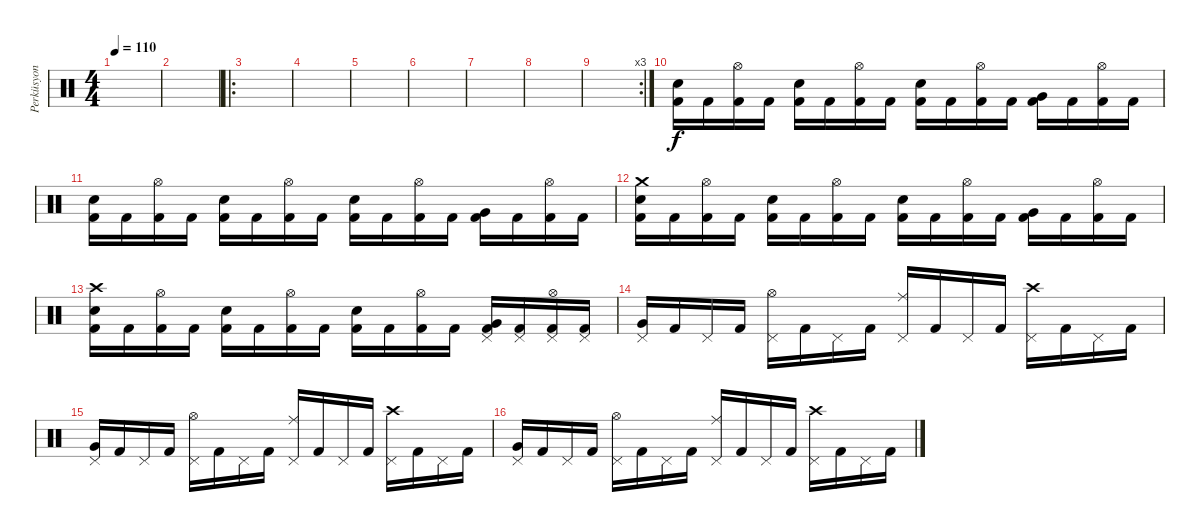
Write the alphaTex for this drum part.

\track ("Perküsyon" "Perküsyon") {instrument percussion}
\staff {score}
\articulation defaults
\ts (4 4)
\tempo 110
\clef neutral
\ks c
|
|
\ro
|
|
|
|
|
|
\rc 3
|
("Electric Snare (hit)" "Kick (hit) 2").16 "Kick (hit) 2".16 ("Hi-Hat (open)" "Kick (hit) 2").16 "Kick (hit) 2".16 ("Electric Snare (hit)" "Kick (hit) 2").16 "Kick (hit) 2".16 ("Hi-Hat (open)" "Kick (hit) 2").16 "Kick (hit) 2".16 ("Electric Snare (hit)" "Kick (hit) 2").16 "Kick (hit) 2".16 ("Hi-Hat (open)" "Kick (hit) 2").16 "Kick (hit) 2".16 ("Very Low Tom (hit)" "Kick (hit) 2").16 "Kick (hit) 2".16 ("Hi-Hat (open)" "Kick (hit) 2").16 "Kick (hit) 2".16 |
("Snare (hit) 2" "Kick (hit) 2").16 "Kick (hit) 2".16 ("Hi-Hat (open)" "Kick (hit) 2").16 "Kick (hit) 2".16 ("Snare (hit) 2" "Kick (hit) 2").16 "Kick (hit) 2".16 ("Hi-Hat (open)" "Kick (hit) 2").16 "Kick (hit) 2".16 ("Snare (hit) 2" "Kick (hit) 2").16 "Kick (hit) 2".16 ("Hi-Hat (open)" "Kick (hit) 2").16 "Kick (hit) 2".16 ("Very Low Tom (hit)" "Kick (hit) 2").16 "Kick (hit) 2".16 ("Hi-Hat (open)" "Kick (hit) 2").16 "Kick (hit) 2".16 |
("Crash medium (hit)" "Electric Snare (hit)" "Kick (hit) 2").16 "Kick (hit) 2".16 ("Hi-Hat (open)" "Kick (hit) 2").16 "Kick (hit) 2".16 ("Electric Snare (hit)" "Kick (hit) 2").16 "Kick (hit) 2".16 ("Hi-Hat (open)" "Kick (hit) 2").16 "Kick (hit) 2".16 ("Electric Snare (hit)" "Kick (hit) 2").16 "Kick (hit) 2".16 ("Hi-Hat (open)" "Kick (hit) 2").16 "Kick (hit) 2".16 ("Very Low Tom (hit)" "Kick (hit) 2").16 "Kick (hit) 2".16 ("Hi-Hat (open)" "Kick (hit) 2").16 "Kick (hit) 2".16 |
("Crash high (hit)" "Electric Snare (hit)" "Kick (hit) 2").16 "Kick (hit) 2".16 ("Hi-Hat (open)" "Kick (hit) 2").16 "Kick (hit) 2".16 ("Electric Snare (hit)" "Kick (hit) 2").16 "Kick (hit) 2".16 ("Hi-Hat (open)" "Kick (hit) 2").16 "Kick (hit) 2".16 ("Electric Snare (hit)" "Kick (hit) 2").16 "Kick (hit) 2".16 ("Hi-Hat (open)" "Kick (hit) 2").16 "Kick (hit) 2".16 ("Very Low Tom (hit)" "Pedal Hi-Hat (hit)" "Kick (hit) 2").16 ("Pedal Hi-Hat (hit)" "Kick (hit) 2").16 ("Hi-Hat (open)" "Pedal Hi-Hat (hit)" "Kick (hit) 2").16 ("Pedal Hi-Hat (hit)" "Kick (hit) 2").16 |
("Very Low Tom (hit)" "Pedal Hi-Hat (hit)").16 "Kick (hit) 2".16 "Pedal Hi-Hat (hit)".16 "Kick (hit) 2".16 ("Hi-Hat (open)" "Pedal Hi-Hat (hit)").16 "Kick (hit) 2".16 "Pedal Hi-Hat (hit)".16 "Kick (hit) 2".16 ("Ride (middle)" "Pedal Hi-Hat (hit)").16 "Kick (hit) 2".16 "Pedal Hi-Hat (hit)".16 "Kick (hit) 2".16 ("Crash high (hit)" "Pedal Hi-Hat (hit)").16 "Kick (hit) 2".16 "Pedal Hi-Hat (hit)".16 "Kick (hit) 2".16 |
("Very Low Tom (hit)" "Pedal Hi-Hat (hit)").16 "Kick (hit) 2".16 "Pedal Hi-Hat (hit)".16 "Kick (hit) 2".16 ("Hi-Hat (open)" "Pedal Hi-Hat (hit)").16 "Kick (hit) 2".16 "Pedal Hi-Hat (hit)".16 "Kick (hit) 2".16 ("Ride (middle)" "Pedal Hi-Hat (hit)").16 "Kick (hit) 2".16 "Pedal Hi-Hat (hit)".16 "Kick (hit) 2".16 ("Crash high (hit)" "Pedal Hi-Hat (hit)").16 "Kick (hit) 2".16 "Pedal Hi-Hat (hit)".16 "Kick (hit) 2".16 |
("Very Low Tom (hit)" "Pedal Hi-Hat (hit)").16 "Kick (hit) 2".16 "Pedal Hi-Hat (hit)".16 "Kick (hit) 2".16 ("Hi-Hat (open)" "Pedal Hi-Hat (hit)").16 "Kick (hit) 2".16 "Pedal Hi-Hat (hit)".16 "Kick (hit) 2".16 ("Ride (middle)" "Pedal Hi-Hat (hit)").16 "Kick (hit) 2".16 "Pedal Hi-Hat (hit)".16 "Kick (hit) 2".16 ("Crash high (hit)" "Pedal Hi-Hat (hit)").16 "Kick (hit) 2".16 "Pedal Hi-Hat (hit)".16 "Kick (hit) 2".16
